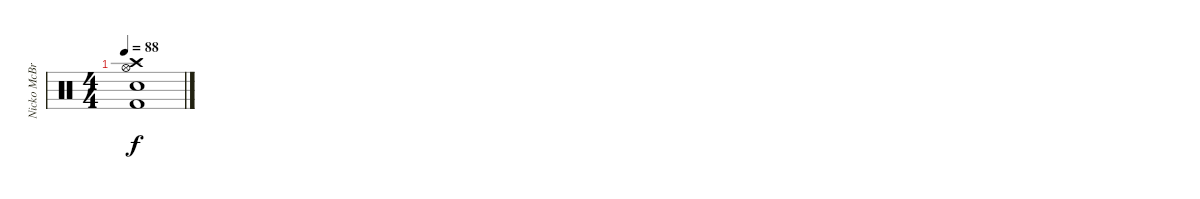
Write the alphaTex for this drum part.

\track ("Nicko McBrain" "Nicko McBr") {instrument percussion}
\staff {score}
\articulation defaults
\ts (4 4)
\tempo 88
\clef neutral
\ks c
("Snare (hit) 2" "Kick (hit) 2" "Hi-Hat (open)" "Crash high (hit)").1{dy f}
